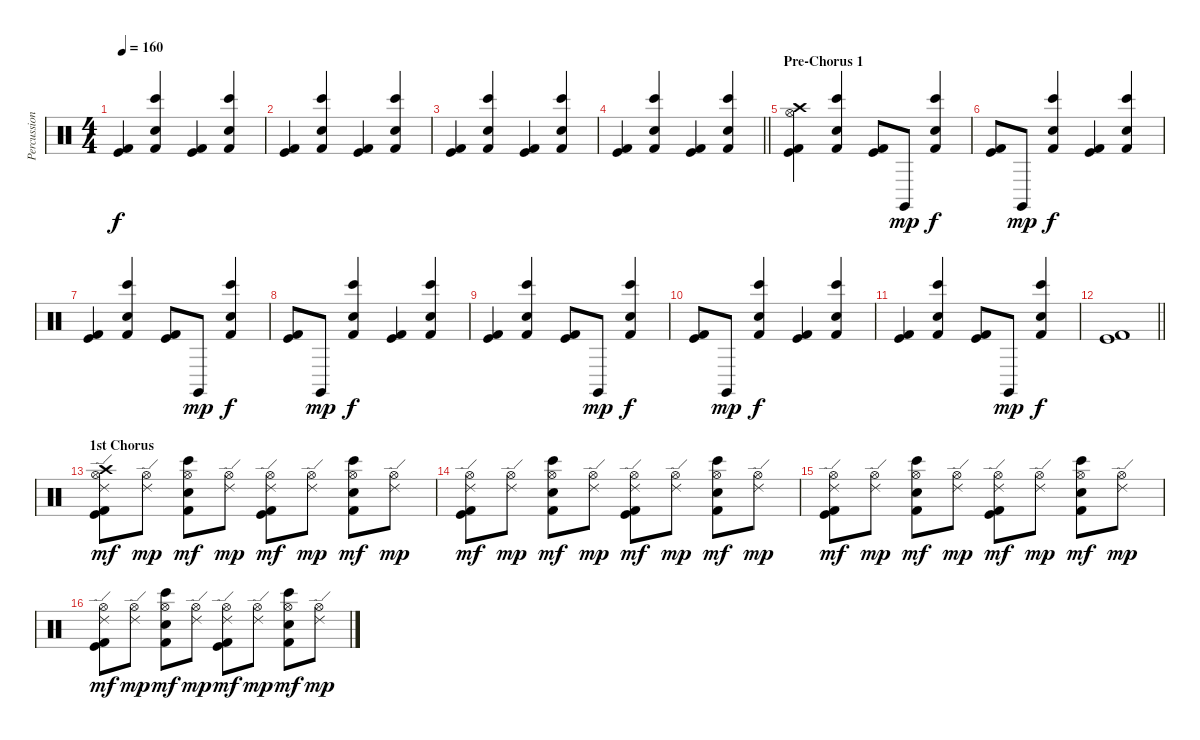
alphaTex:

\track ("Percussion" "Percussion") {instrument percussion}
\staff {score}
\articulation defaults
\ts (4 4)
\tempo 160
\clef neutral
\ks c
("Kick (hit)" "Kick (hit) 2").4{dy f} ("Bongo High (hit)" "Hand Clap (hit)" "Kick (hit) 2").4 ("Kick (hit)" "Kick (hit) 2").4 ("Bongo High (hit)" "Hand Clap (hit)" "Kick (hit) 2").4 |
("Kick (hit)" "Kick (hit) 2").4 ("Bongo High (hit)" "Hand Clap (hit)" "Kick (hit) 2").4 ("Kick (hit)" "Kick (hit) 2").4 ("Bongo High (hit)" "Hand Clap (hit)" "Kick (hit) 2").4 |
("Kick (hit)" "Kick (hit) 2").4 ("Bongo High (hit)" "Hand Clap (hit)" "Kick (hit) 2").4 ("Kick (hit)" "Kick (hit) 2").4 ("Bongo High (hit)" "Hand Clap (hit)" "Kick (hit) 2").4 |
\barLineRight lightlight
("Kick (hit)" "Kick (hit) 2").4 ("Bongo High (hit)" "Hand Clap (hit)" "Kick (hit) 2").4 ("Kick (hit)" "Kick (hit) 2").4 ("Bongo High (hit)" "Hand Clap (hit)" "Kick (hit) 2").4 |
\section ("" "Pre-Chorus 1")
("Crash high (hit)" "Hi-Hat (open)" "Kick (hit)" "Kick (hit) 2").4 ("Bongo High (hit)" "Hand Clap (hit)" "Kick (hit) 2").4 ("Kick (hit)" "Kick (hit) 2").8 "Claves (hit)".8{dy mp} ("Bongo High (hit)" "Hand Clap (hit)" "Kick (hit) 2").4{dy f} |
("Kick (hit)" "Kick (hit) 2").8 "Claves (hit)".8{dy mp} ("Bongo High (hit)" "Hand Clap (hit)" "Kick (hit) 2").4{dy f} ("Kick (hit)" "Kick (hit) 2").4 ("Bongo High (hit)" "Hand Clap (hit)" "Kick (hit) 2").4 |
("Kick (hit)" "Kick (hit) 2").4 ("Bongo High (hit)" "Hand Clap (hit)" "Kick (hit) 2").4 ("Kick (hit)" "Kick (hit) 2").8 "Claves (hit)".8{dy mp} ("Bongo High (hit)" "Hand Clap (hit)" "Kick (hit) 2").4{dy f} |
("Kick (hit)" "Kick (hit) 2").8 "Claves (hit)".8{dy mp} ("Bongo High (hit)" "Hand Clap (hit)" "Kick (hit) 2").4{dy f} ("Kick (hit)" "Kick (hit) 2").4 ("Bongo High (hit)" "Hand Clap (hit)" "Kick (hit) 2").4 |
("Kick (hit)" "Kick (hit) 2").4 ("Bongo High (hit)" "Hand Clap (hit)" "Kick (hit) 2").4 ("Kick (hit)" "Kick (hit) 2").8 "Claves (hit)".8{dy mp} ("Bongo High (hit)" "Hand Clap (hit)" "Kick (hit) 2").4{dy f} |
("Kick (hit)" "Kick (hit) 2").8 "Claves (hit)".8{dy mp} ("Bongo High (hit)" "Hand Clap (hit)" "Kick (hit) 2").4{dy f} ("Kick (hit)" "Kick (hit) 2").4 ("Bongo High (hit)" "Hand Clap (hit)" "Kick (hit) 2").4 |
("Kick (hit)" "Kick (hit) 2").4 ("Bongo High (hit)" "Hand Clap (hit)" "Kick (hit) 2").4 ("Kick (hit)" "Kick (hit) 2").8 "Claves (hit)".8{dy mp} ("Bongo High (hit)" "Hand Clap (hit)" "Kick (hit) 2").4{dy f} |
\barLineRight lightlight
("Kick (hit)" "Kick (hit) 2").1 |
\section ("" "1st Chorus")
("Crash high (hit)" "Ride (edge) 2" "Hi-Hat (open)" "Kick (hit)" "Kick (hit) 2").8{dy mf} ("Ride (edge) 2" "Hi-Hat (open)").8{dy mp} ("Bongo High (hit)" "Hi-Hat (open)" "Hand Clap (hit)" "Kick (hit) 2").8{dy mf} ("Ride (edge) 2" "Hi-Hat (open)").8{dy mp} ("Ride (edge) 2" "Hi-Hat (open)" "Kick (hit)" "Kick (hit) 2").8{dy mf} ("Ride (edge) 2" "Hi-Hat (open)").8{dy mp} ("Bongo High (hit)" "Hi-Hat (open)" "Hand Clap (hit)" "Kick (hit) 2").8{dy mf} ("Ride (edge) 2" "Hi-Hat (open)").8{dy mp} |
("Ride (edge) 2" "Hi-Hat (open)" "Kick (hit)" "Kick (hit) 2").8{dy mf} ("Ride (edge) 2" "Hi-Hat (open)").8{dy mp} ("Bongo High (hit)" "Hi-Hat (open)" "Hand Clap (hit)" "Kick (hit) 2").8{dy mf} ("Ride (edge) 2" "Hi-Hat (open)").8{dy mp} ("Ride (edge) 2" "Hi-Hat (open)" "Kick (hit)" "Kick (hit) 2").8{dy mf} ("Ride (edge) 2" "Hi-Hat (open)").8{dy mp} ("Bongo High (hit)" "Hi-Hat (open)" "Hand Clap (hit)" "Kick (hit) 2").8{dy mf} ("Ride (edge) 2" "Hi-Hat (open)").8{dy mp} |
("Ride (edge) 2" "Hi-Hat (open)" "Kick (hit)" "Kick (hit) 2").8{dy mf} ("Ride (edge) 2" "Hi-Hat (open)").8{dy mp} ("Bongo High (hit)" "Hi-Hat (open)" "Hand Clap (hit)" "Kick (hit) 2").8{dy mf} ("Ride (edge) 2" "Hi-Hat (open)").8{dy mp} ("Ride (edge) 2" "Hi-Hat (open)" "Kick (hit)" "Kick (hit) 2").8{dy mf} ("Ride (edge) 2" "Hi-Hat (open)").8{dy mp} ("Bongo High (hit)" "Hi-Hat (open)" "Hand Clap (hit)" "Kick (hit) 2").8{dy mf} ("Ride (edge) 2" "Hi-Hat (open)").8{dy mp} |
("Ride (edge) 2" "Hi-Hat (open)" "Kick (hit)" "Kick (hit) 2").8{dy mf} ("Ride (edge) 2" "Hi-Hat (open)").8{dy mp} ("Bongo High (hit)" "Hi-Hat (open)" "Hand Clap (hit)" "Kick (hit) 2").8{dy mf} ("Ride (edge) 2" "Hi-Hat (open)").8{dy mp} ("Ride (edge) 2" "Hi-Hat (open)" "Kick (hit)" "Kick (hit) 2").8{dy mf} ("Ride (edge) 2" "Hi-Hat (open)").8{dy mp} ("Bongo High (hit)" "Hi-Hat (open)" "Hand Clap (hit)" "Kick (hit) 2").8{dy mf} ("Ride (edge) 2" "Hi-Hat (open)").8{dy mp}
